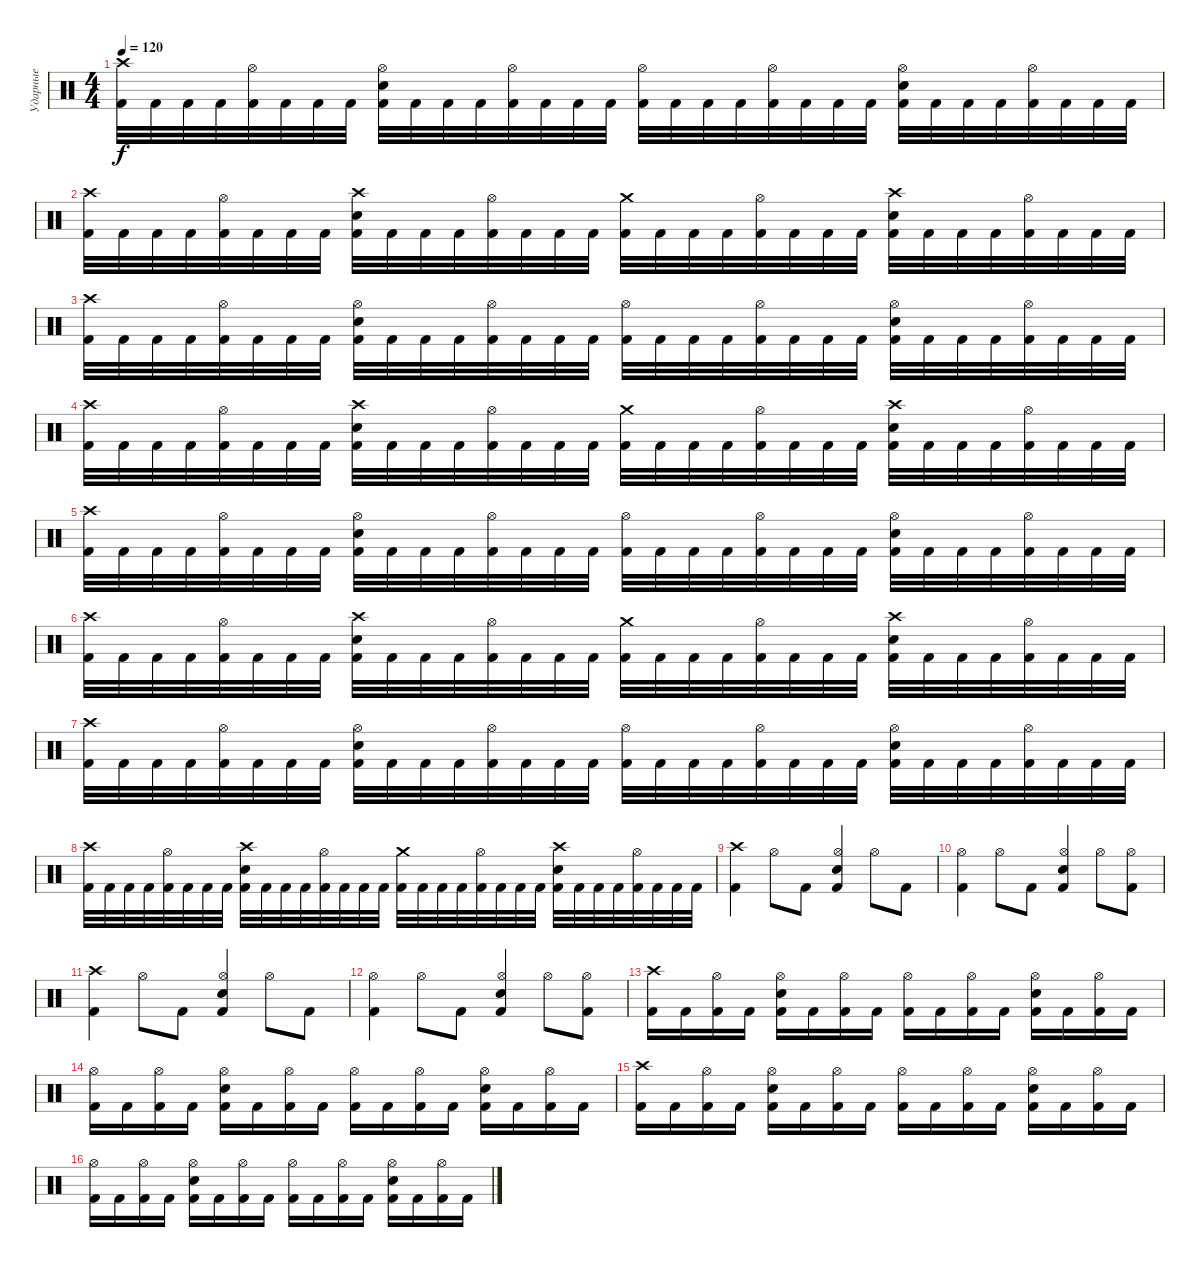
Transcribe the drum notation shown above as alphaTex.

\track ("Ударные" "Ударные") {instrument percussion}
\staff {score}
\articulation defaults
\ts (4 4)
\tempo 120
\clef neutral
\ks c
("Crash high (hit)" "Kick (hit) 2").32{dy f} "Kick (hit) 2".32 "Kick (hit) 2".32 "Kick (hit) 2".32 ("Hi-Hat (open)" "Kick (hit) 2").32 "Kick (hit) 2".32 "Kick (hit) 2".32 "Kick (hit) 2".32 ("Hi-Hat (open)" "Snare (hit) 2" "Kick (hit) 2").32 "Kick (hit) 2".32 "Kick (hit) 2".32 "Kick (hit) 2".32 ("Hi-Hat (open)" "Kick (hit) 2").32 "Kick (hit) 2".32 "Kick (hit) 2".32 "Kick (hit) 2".32 ("Hi-Hat (open)" "Kick (hit) 2").32 "Kick (hit) 2".32 "Kick (hit) 2".32 "Kick (hit) 2".32 ("Hi-Hat (open)" "Kick (hit) 2").32 "Kick (hit) 2".32 "Kick (hit) 2".32 "Kick (hit) 2".32 ("Hi-Hat (open)" "Snare (hit) 2" "Kick (hit) 2").32 "Kick (hit) 2".32 "Kick (hit) 2".32 "Kick (hit) 2".32 ("Hi-Hat (open)" "Kick (hit) 2").32 "Kick (hit) 2".32 "Kick (hit) 2".32 "Kick (hit) 2".32 |
("Crash high (hit)" "Kick (hit) 2").32 "Kick (hit) 2".32 "Kick (hit) 2".32 "Kick (hit) 2".32 ("Hi-Hat (open)" "Kick (hit) 2").32 "Kick (hit) 2".32 "Kick (hit) 2".32 "Kick (hit) 2".32 ("Crash high (hit)" "Snare (hit) 2" "Kick (hit) 2").32 "Kick (hit) 2".32 "Kick (hit) 2".32 "Kick (hit) 2".32 ("Hi-Hat (open)" "Kick (hit) 2").32 "Kick (hit) 2".32 "Kick (hit) 2".32 "Kick (hit) 2".32 ("Crash medium (hit)" "Kick (hit) 2").32 "Kick (hit) 2".32 "Kick (hit) 2".32 "Kick (hit) 2".32 ("Hi-Hat (open)" "Kick (hit) 2").32 "Kick (hit) 2".32 "Kick (hit) 2".32 "Kick (hit) 2".32 ("Crash high (hit)" "Snare (hit) 2" "Kick (hit) 2").32 "Kick (hit) 2".32 "Kick (hit) 2".32 "Kick (hit) 2".32 ("Hi-Hat (open)" "Kick (hit) 2").32 "Kick (hit) 2".32 "Kick (hit) 2".32 "Kick (hit) 2".32 |
("Crash high (hit)" "Kick (hit) 2").32 "Kick (hit) 2".32 "Kick (hit) 2".32 "Kick (hit) 2".32 ("Hi-Hat (open)" "Kick (hit) 2").32 "Kick (hit) 2".32 "Kick (hit) 2".32 "Kick (hit) 2".32 ("Hi-Hat (open)" "Snare (hit) 2" "Kick (hit) 2").32 "Kick (hit) 2".32 "Kick (hit) 2".32 "Kick (hit) 2".32 ("Hi-Hat (open)" "Kick (hit) 2").32 "Kick (hit) 2".32 "Kick (hit) 2".32 "Kick (hit) 2".32 ("Hi-Hat (open)" "Kick (hit) 2").32 "Kick (hit) 2".32 "Kick (hit) 2".32 "Kick (hit) 2".32 ("Hi-Hat (open)" "Kick (hit) 2").32 "Kick (hit) 2".32 "Kick (hit) 2".32 "Kick (hit) 2".32 ("Hi-Hat (open)" "Snare (hit) 2" "Kick (hit) 2").32 "Kick (hit) 2".32 "Kick (hit) 2".32 "Kick (hit) 2".32 ("Hi-Hat (open)" "Kick (hit) 2").32 "Kick (hit) 2".32 "Kick (hit) 2".32 "Kick (hit) 2".32 |
("Crash high (hit)" "Kick (hit) 2").32 "Kick (hit) 2".32 "Kick (hit) 2".32 "Kick (hit) 2".32 ("Hi-Hat (open)" "Kick (hit) 2").32 "Kick (hit) 2".32 "Kick (hit) 2".32 "Kick (hit) 2".32 ("Crash high (hit)" "Snare (hit) 2" "Kick (hit) 2").32 "Kick (hit) 2".32 "Kick (hit) 2".32 "Kick (hit) 2".32 ("Hi-Hat (open)" "Kick (hit) 2").32 "Kick (hit) 2".32 "Kick (hit) 2".32 "Kick (hit) 2".32 ("Crash medium (hit)" "Kick (hit) 2").32 "Kick (hit) 2".32 "Kick (hit) 2".32 "Kick (hit) 2".32 ("Hi-Hat (open)" "Kick (hit) 2").32 "Kick (hit) 2".32 "Kick (hit) 2".32 "Kick (hit) 2".32 ("Crash high (hit)" "Snare (hit) 2" "Kick (hit) 2").32 "Kick (hit) 2".32 "Kick (hit) 2".32 "Kick (hit) 2".32 ("Hi-Hat (open)" "Kick (hit) 2").32 "Kick (hit) 2".32 "Kick (hit) 2".32 "Kick (hit) 2".32 |
("Crash high (hit)" "Kick (hit) 2").32 "Kick (hit) 2".32 "Kick (hit) 2".32 "Kick (hit) 2".32 ("Hi-Hat (open)" "Kick (hit) 2").32 "Kick (hit) 2".32 "Kick (hit) 2".32 "Kick (hit) 2".32 ("Hi-Hat (open)" "Snare (hit) 2" "Kick (hit) 2").32 "Kick (hit) 2".32 "Kick (hit) 2".32 "Kick (hit) 2".32 ("Hi-Hat (open)" "Kick (hit) 2").32 "Kick (hit) 2".32 "Kick (hit) 2".32 "Kick (hit) 2".32 ("Hi-Hat (open)" "Kick (hit) 2").32 "Kick (hit) 2".32 "Kick (hit) 2".32 "Kick (hit) 2".32 ("Hi-Hat (open)" "Kick (hit) 2").32 "Kick (hit) 2".32 "Kick (hit) 2".32 "Kick (hit) 2".32 ("Hi-Hat (open)" "Snare (hit) 2" "Kick (hit) 2").32 "Kick (hit) 2".32 "Kick (hit) 2".32 "Kick (hit) 2".32 ("Hi-Hat (open)" "Kick (hit) 2").32 "Kick (hit) 2".32 "Kick (hit) 2".32 "Kick (hit) 2".32 |
("Crash high (hit)" "Kick (hit) 2").32 "Kick (hit) 2".32 "Kick (hit) 2".32 "Kick (hit) 2".32 ("Hi-Hat (open)" "Kick (hit) 2").32 "Kick (hit) 2".32 "Kick (hit) 2".32 "Kick (hit) 2".32 ("Crash high (hit)" "Snare (hit) 2" "Kick (hit) 2").32 "Kick (hit) 2".32 "Kick (hit) 2".32 "Kick (hit) 2".32 ("Hi-Hat (open)" "Kick (hit) 2").32 "Kick (hit) 2".32 "Kick (hit) 2".32 "Kick (hit) 2".32 ("Crash medium (hit)" "Kick (hit) 2").32 "Kick (hit) 2".32 "Kick (hit) 2".32 "Kick (hit) 2".32 ("Hi-Hat (open)" "Kick (hit) 2").32 "Kick (hit) 2".32 "Kick (hit) 2".32 "Kick (hit) 2".32 ("Crash high (hit)" "Snare (hit) 2" "Kick (hit) 2").32 "Kick (hit) 2".32 "Kick (hit) 2".32 "Kick (hit) 2".32 ("Hi-Hat (open)" "Kick (hit) 2").32 "Kick (hit) 2".32 "Kick (hit) 2".32 "Kick (hit) 2".32 |
("Crash high (hit)" "Kick (hit) 2").32 "Kick (hit) 2".32 "Kick (hit) 2".32 "Kick (hit) 2".32 ("Hi-Hat (open)" "Kick (hit) 2").32 "Kick (hit) 2".32 "Kick (hit) 2".32 "Kick (hit) 2".32 ("Hi-Hat (open)" "Snare (hit) 2" "Kick (hit) 2").32 "Kick (hit) 2".32 "Kick (hit) 2".32 "Kick (hit) 2".32 ("Hi-Hat (open)" "Kick (hit) 2").32 "Kick (hit) 2".32 "Kick (hit) 2".32 "Kick (hit) 2".32 ("Hi-Hat (open)" "Kick (hit) 2").32 "Kick (hit) 2".32 "Kick (hit) 2".32 "Kick (hit) 2".32 ("Hi-Hat (open)" "Kick (hit) 2").32 "Kick (hit) 2".32 "Kick (hit) 2".32 "Kick (hit) 2".32 ("Hi-Hat (open)" "Snare (hit) 2" "Kick (hit) 2").32 "Kick (hit) 2".32 "Kick (hit) 2".32 "Kick (hit) 2".32 ("Hi-Hat (open)" "Kick (hit) 2").32 "Kick (hit) 2".32 "Kick (hit) 2".32 "Kick (hit) 2".32 |
("Crash high (hit)" "Kick (hit) 2").32 "Kick (hit) 2".32 "Kick (hit) 2".32 "Kick (hit) 2".32 ("Hi-Hat (open)" "Kick (hit) 2").32 "Kick (hit) 2".32 "Kick (hit) 2".32 "Kick (hit) 2".32 ("Crash high (hit)" "Snare (hit) 2" "Kick (hit) 2").32 "Kick (hit) 2".32 "Kick (hit) 2".32 "Kick (hit) 2".32 ("Hi-Hat (open)" "Kick (hit) 2").32 "Kick (hit) 2".32 "Kick (hit) 2".32 "Kick (hit) 2".32 ("Crash medium (hit)" "Kick (hit) 2").32 "Kick (hit) 2".32 "Kick (hit) 2".32 "Kick (hit) 2".32 ("Hi-Hat (open)" "Kick (hit) 2").32 "Kick (hit) 2".32 "Kick (hit) 2".32 "Kick (hit) 2".32 ("Crash high (hit)" "Snare (hit) 2" "Kick (hit) 2").32 "Kick (hit) 2".32 "Kick (hit) 2".32 "Kick (hit) 2".32 ("Hi-Hat (open)" "Kick (hit) 2").32 "Kick (hit) 2".32 "Kick (hit) 2".32 "Kick (hit) 2".32 |
("Crash high (hit)" "Kick (hit) 2").4 "Hi-Hat (open)".8 "Kick (hit) 2".8 ("Hi-Hat (open)" "Snare (hit) 2" "Kick (hit) 2").4 "Hi-Hat (open)".8 "Kick (hit) 2".8 |
("Hi-Hat (open)" "Kick (hit) 2").4 "Hi-Hat (open)".8 "Kick (hit) 2".8 ("Hi-Hat (open)" "Snare (hit) 2" "Kick (hit) 2").4 "Hi-Hat (open)".8 ("Hi-Hat (open)" "Kick (hit) 2").8 |
("Crash high (hit)" "Kick (hit) 2").4 "Hi-Hat (open)".8 "Kick (hit) 2".8 ("Hi-Hat (open)" "Snare (hit) 2" "Kick (hit) 2").4 "Hi-Hat (open)".8 "Kick (hit) 2".8 |
("Hi-Hat (open)" "Kick (hit) 2").4 "Hi-Hat (open)".8 "Kick (hit) 2".8 ("Hi-Hat (open)" "Snare (hit) 2" "Kick (hit) 2").4 "Hi-Hat (open)".8 ("Hi-Hat (open)" "Kick (hit) 2").8 |
("Crash high (hit)" "Kick (hit) 2").16 "Kick (hit) 2".16 ("Hi-Hat (open)" "Kick (hit) 2").16 "Kick (hit) 2".16 ("Hi-Hat (open)" "Snare (hit) 2" "Kick (hit) 2").16 "Kick (hit) 2".16 ("Hi-Hat (open)" "Kick (hit) 2").16 "Kick (hit) 2".16 ("Hi-Hat (open)" "Kick (hit) 2").16 "Kick (hit) 2".16 ("Hi-Hat (open)" "Kick (hit) 2").16 "Kick (hit) 2".16 ("Hi-Hat (open)" "Snare (hit) 2" "Kick (hit) 2").16 "Kick (hit) 2".16 ("Hi-Hat (open)" "Kick (hit) 2").16 "Kick (hit) 2".16 |
("Hi-Hat (open)" "Kick (hit) 2").16 "Kick (hit) 2".16 ("Hi-Hat (open)" "Kick (hit) 2").16 "Kick (hit) 2".16 ("Hi-Hat (open)" "Snare (hit) 2" "Kick (hit) 2").16 "Kick (hit) 2".16 ("Hi-Hat (open)" "Kick (hit) 2").16 "Kick (hit) 2".16 ("Hi-Hat (open)" "Kick (hit) 2").16 "Kick (hit) 2".16 ("Hi-Hat (open)" "Kick (hit) 2").16 "Kick (hit) 2".16 ("Hi-Hat (open)" "Snare (hit) 2" "Kick (hit) 2").16 "Kick (hit) 2".16 ("Hi-Hat (open)" "Kick (hit) 2").16 "Kick (hit) 2".16 |
("Crash high (hit)" "Kick (hit) 2").16 "Kick (hit) 2".16 ("Hi-Hat (open)" "Kick (hit) 2").16 "Kick (hit) 2".16 ("Hi-Hat (open)" "Snare (hit) 2" "Kick (hit) 2").16 "Kick (hit) 2".16 ("Hi-Hat (open)" "Kick (hit) 2").16 "Kick (hit) 2".16 ("Hi-Hat (open)" "Kick (hit) 2").16 "Kick (hit) 2".16 ("Hi-Hat (open)" "Kick (hit) 2").16 "Kick (hit) 2".16 ("Hi-Hat (open)" "Snare (hit) 2" "Kick (hit) 2").16 "Kick (hit) 2".16 ("Hi-Hat (open)" "Kick (hit) 2").16 "Kick (hit) 2".16 |
("Hi-Hat (open)" "Kick (hit) 2").16 "Kick (hit) 2".16 ("Hi-Hat (open)" "Kick (hit) 2").16 "Kick (hit) 2".16 ("Hi-Hat (open)" "Snare (hit) 2" "Kick (hit) 2").16 "Kick (hit) 2".16 ("Hi-Hat (open)" "Kick (hit) 2").16 "Kick (hit) 2".16 ("Hi-Hat (open)" "Kick (hit) 2").16 "Kick (hit) 2".16 ("Hi-Hat (open)" "Kick (hit) 2").16 "Kick (hit) 2".16 ("Hi-Hat (open)" "Snare (hit) 2" "Kick (hit) 2").16 "Kick (hit) 2".16 ("Hi-Hat (open)" "Kick (hit) 2").16 "Kick (hit) 2".16
